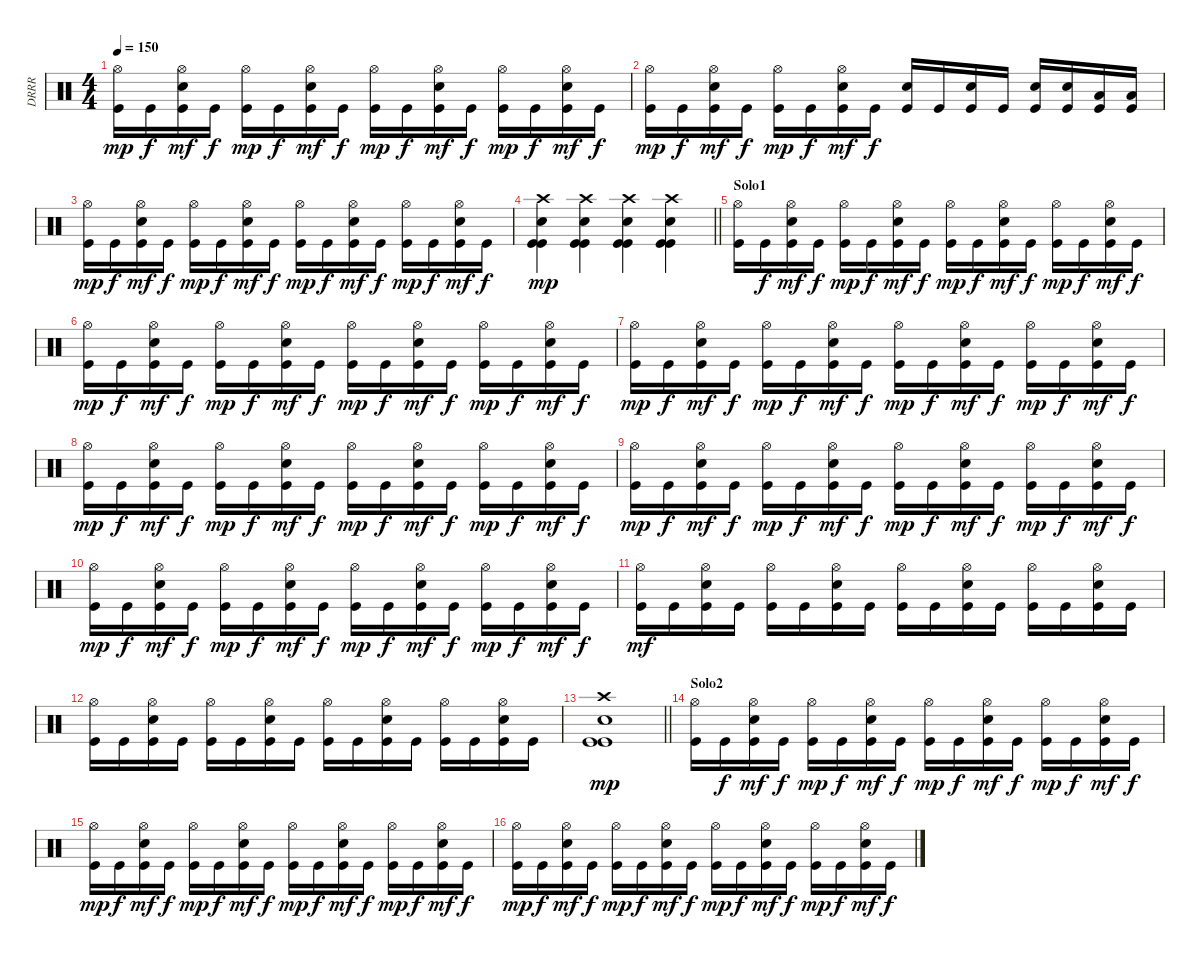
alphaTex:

\track ("DRRR" "DRRR") {instrument percussion}
\staff {score}
\articulation defaults
\ts (4 4)
\tempo 150
\clef neutral
\ks c
("Hi-Hat (open)" "Kick (hit)").16{dy mp} "Kick (hit)".16{dy f} ("Hi-Hat (open)" "Snare (hit) 2" "Kick (hit)").16{dy mf} "Kick (hit)".16{dy f} ("Hi-Hat (open)" "Kick (hit)").16{dy mp} "Kick (hit)".16{dy f} ("Hi-Hat (open)" "Snare (hit) 2" "Kick (hit)").16{dy mf} "Kick (hit)".16{dy f} ("Hi-Hat (open)" "Kick (hit)").16{dy mp} "Kick (hit)".16{dy f} ("Hi-Hat (open)" "Snare (hit) 2" "Kick (hit)").16{dy mf} "Kick (hit)".16{dy f} ("Hi-Hat (open)" "Kick (hit)").16{dy mp} "Kick (hit)".16{dy f} ("Hi-Hat (open)" "Snare (hit) 2" "Kick (hit)").16{dy mf} "Kick (hit)".16{dy f} |
("Hi-Hat (open)" "Kick (hit)").16{dy mp} "Kick (hit)".16{dy f} ("Hi-Hat (open)" "Snare (hit) 2" "Kick (hit)").16{dy mf} "Kick (hit)".16{dy f} ("Hi-Hat (open)" "Kick (hit)").16{dy mp} "Kick (hit)".16{dy f} ("Hi-Hat (open)" "Snare (hit) 2" "Kick (hit)").16{dy mf} "Kick (hit)".16{dy f} ("Snare (hit) 2" "Kick (hit)").16 "Kick (hit)".16 ("Snare (hit) 2" "Kick (hit)").16 "Kick (hit)".16 ("Snare (hit) 2" "Kick (hit)").16 ("Snare (hit) 2" "Kick (hit)").16 ("Low Tom (hit)" "Kick (hit)").16 ("Low Tom (hit)" "Kick (hit)").16 |
("Hi-Hat (open)" "Kick (hit)").16{dy mp} "Kick (hit)".16{dy f} ("Hi-Hat (open)" "Snare (hit) 2" "Kick (hit)").16{dy mf} "Kick (hit)".16{dy f} ("Hi-Hat (open)" "Kick (hit)").16{dy mp} "Kick (hit)".16{dy f} ("Hi-Hat (open)" "Snare (hit) 2" "Kick (hit)").16{dy mf} "Kick (hit)".16{dy f} ("Hi-Hat (open)" "Kick (hit)").16{dy mp} "Kick (hit)".16{dy f} ("Hi-Hat (open)" "Snare (hit) 2" "Kick (hit)").16{dy mf} "Kick (hit)".16{dy f} ("Hi-Hat (open)" "Kick (hit)").16{dy mp} "Kick (hit)".16{dy f} ("Hi-Hat (open)" "Snare (hit) 2" "Kick (hit)").16{dy mf} "Kick (hit)".16{dy f} |
\barLineRight lightlight
("Crash high (hit)" "Snare (hit) 2" "Kick (hit)" "Kick (hit)").4{dy mp} ("Crash high (hit)" "Snare (hit) 2" "Kick (hit)" "Kick (hit)").4 ("Crash high (hit)" "Snare (hit) 2" "Kick (hit)" "Kick (hit)").4 ("Crash high (hit)" "Snare (hit) 2" "Kick (hit)" "Kick (hit)").4 |
\section ("" "Solo1")
("Hi-Hat (open)" "Kick (hit)").16 "Kick (hit)".16{dy f} ("Hi-Hat (open)" "Snare (hit) 2" "Kick (hit)").16{dy mf} "Kick (hit)".16{dy f} ("Hi-Hat (open)" "Kick (hit)").16{dy mp} "Kick (hit)".16{dy f} ("Hi-Hat (open)" "Snare (hit) 2" "Kick (hit)").16{dy mf} "Kick (hit)".16{dy f} ("Hi-Hat (open)" "Kick (hit)").16{dy mp} "Kick (hit)".16{dy f} ("Hi-Hat (open)" "Snare (hit) 2" "Kick (hit)").16{dy mf} "Kick (hit)".16{dy f} ("Hi-Hat (open)" "Kick (hit)").16{dy mp} "Kick (hit)".16{dy f} ("Hi-Hat (open)" "Snare (hit) 2" "Kick (hit)").16{dy mf} "Kick (hit)".16{dy f} |
("Hi-Hat (open)" "Kick (hit)").16{dy mp} "Kick (hit)".16{dy f} ("Hi-Hat (open)" "Snare (hit) 2" "Kick (hit)").16{dy mf} "Kick (hit)".16{dy f} ("Hi-Hat (open)" "Kick (hit)").16{dy mp} "Kick (hit)".16{dy f} ("Hi-Hat (open)" "Snare (hit) 2" "Kick (hit)").16{dy mf} "Kick (hit)".16{dy f} ("Hi-Hat (open)" "Kick (hit)").16{dy mp} "Kick (hit)".16{dy f} ("Hi-Hat (open)" "Snare (hit) 2" "Kick (hit)").16{dy mf} "Kick (hit)".16{dy f} ("Hi-Hat (open)" "Kick (hit)").16{dy mp} "Kick (hit)".16{dy f} ("Hi-Hat (open)" "Snare (hit) 2" "Kick (hit)").16{dy mf} "Kick (hit)".16{dy f} |
("Hi-Hat (open)" "Kick (hit)").16{dy mp} "Kick (hit)".16{dy f} ("Hi-Hat (open)" "Snare (hit) 2" "Kick (hit)").16{dy mf} "Kick (hit)".16{dy f} ("Hi-Hat (open)" "Kick (hit)").16{dy mp} "Kick (hit)".16{dy f} ("Hi-Hat (open)" "Snare (hit) 2" "Kick (hit)").16{dy mf} "Kick (hit)".16{dy f} ("Hi-Hat (open)" "Kick (hit)").16{dy mp} "Kick (hit)".16{dy f} ("Hi-Hat (open)" "Snare (hit) 2" "Kick (hit)").16{dy mf} "Kick (hit)".16{dy f} ("Hi-Hat (open)" "Kick (hit)").16{dy mp} "Kick (hit)".16{dy f} ("Hi-Hat (open)" "Snare (hit) 2" "Kick (hit)").16{dy mf} "Kick (hit)".16{dy f} |
("Hi-Hat (open)" "Kick (hit)").16{dy mp} "Kick (hit)".16{dy f} ("Hi-Hat (open)" "Snare (hit) 2" "Kick (hit)").16{dy mf} "Kick (hit)".16{dy f} ("Hi-Hat (open)" "Kick (hit)").16{dy mp} "Kick (hit)".16{dy f} ("Hi-Hat (open)" "Snare (hit) 2" "Kick (hit)").16{dy mf} "Kick (hit)".16{dy f} ("Hi-Hat (open)" "Kick (hit)").16{dy mp} "Kick (hit)".16{dy f} ("Hi-Hat (open)" "Snare (hit) 2" "Kick (hit)").16{dy mf} "Kick (hit)".16{dy f} ("Hi-Hat (open)" "Kick (hit)").16{dy mp} "Kick (hit)".16{dy f} ("Hi-Hat (open)" "Snare (hit) 2" "Kick (hit)").16{dy mf} "Kick (hit)".16{dy f} |
("Hi-Hat (open)" "Kick (hit)").16{dy mp} "Kick (hit)".16{dy f} ("Hi-Hat (open)" "Snare (hit) 2" "Kick (hit)").16{dy mf} "Kick (hit)".16{dy f} ("Hi-Hat (open)" "Kick (hit)").16{dy mp} "Kick (hit)".16{dy f} ("Hi-Hat (open)" "Snare (hit) 2" "Kick (hit)").16{dy mf} "Kick (hit)".16{dy f} ("Hi-Hat (open)" "Kick (hit)").16{dy mp} "Kick (hit)".16{dy f} ("Hi-Hat (open)" "Snare (hit) 2" "Kick (hit)").16{dy mf} "Kick (hit)".16{dy f} ("Hi-Hat (open)" "Kick (hit)").16{dy mp} "Kick (hit)".16{dy f} ("Hi-Hat (open)" "Snare (hit) 2" "Kick (hit)").16{dy mf} "Kick (hit)".16{dy f} |
("Hi-Hat (open)" "Kick (hit)").16{dy mp} "Kick (hit)".16{dy f} ("Hi-Hat (open)" "Snare (hit) 2" "Kick (hit)").16{dy mf} "Kick (hit)".16{dy f} ("Hi-Hat (open)" "Kick (hit)").16{dy mp} "Kick (hit)".16{dy f} ("Hi-Hat (open)" "Snare (hit) 2" "Kick (hit)").16{dy mf} "Kick (hit)".16{dy f} ("Hi-Hat (open)" "Kick (hit)").16{dy mp} "Kick (hit)".16{dy f} ("Hi-Hat (open)" "Snare (hit) 2" "Kick (hit)").16{dy mf} "Kick (hit)".16{dy f} ("Hi-Hat (open)" "Kick (hit)").16{dy mp} "Kick (hit)".16{dy f} ("Hi-Hat (open)" "Snare (hit) 2" "Kick (hit)").16{dy mf} "Kick (hit)".16{dy f} |
("Hi-Hat (open)" "Kick (hit)").16{dy mf} "Kick (hit)".16 ("Hi-Hat (open)" "Snare (hit) 2" "Kick (hit)").16 "Kick (hit)".16 ("Hi-Hat (open)" "Kick (hit)").16 "Kick (hit)".16 ("Hi-Hat (open)" "Snare (hit) 2" "Kick (hit)").16 "Kick (hit)".16 ("Hi-Hat (open)" "Kick (hit)").16 "Kick (hit)".16 ("Hi-Hat (open)" "Snare (hit) 2" "Kick (hit)").16 "Kick (hit)".16 ("Hi-Hat (open)" "Kick (hit)").16 "Kick (hit)".16 ("Hi-Hat (open)" "Snare (hit) 2" "Kick (hit)").16 "Kick (hit)".16 |
("Hi-Hat (open)" "Kick (hit)").16 "Kick (hit)".16 ("Hi-Hat (open)" "Snare (hit) 2" "Kick (hit)").16 "Kick (hit)".16 ("Hi-Hat (open)" "Kick (hit)").16 "Kick (hit)".16 ("Hi-Hat (open)" "Snare (hit) 2" "Kick (hit)").16 "Kick (hit)".16 ("Hi-Hat (open)" "Kick (hit)").16 "Kick (hit)".16 ("Hi-Hat (open)" "Snare (hit) 2" "Kick (hit)").16 "Kick (hit)".16 ("Hi-Hat (open)" "Kick (hit)").16 "Kick (hit)".16 ("Hi-Hat (open)" "Snare (hit) 2" "Kick (hit)").16 "Kick (hit)".16 |
\barLineRight lightlight
("Crash high (hit)" "Snare (hit) 2" "Kick (hit)" "Kick (hit)").1{dy mp} |
\section ("" "Solo2")
("Hi-Hat (open)" "Kick (hit)").16 "Kick (hit)".16{dy f} ("Hi-Hat (open)" "Snare (hit) 2" "Kick (hit)").16{dy mf} "Kick (hit)".16{dy f} ("Hi-Hat (open)" "Kick (hit)").16{dy mp} "Kick (hit)".16{dy f} ("Hi-Hat (open)" "Snare (hit) 2" "Kick (hit)").16{dy mf} "Kick (hit)".16{dy f} ("Hi-Hat (open)" "Kick (hit)").16{dy mp} "Kick (hit)".16{dy f} ("Hi-Hat (open)" "Snare (hit) 2" "Kick (hit)").16{dy mf} "Kick (hit)".16{dy f} ("Hi-Hat (open)" "Kick (hit)").16{dy mp} "Kick (hit)".16{dy f} ("Hi-Hat (open)" "Snare (hit) 2" "Kick (hit)").16{dy mf} "Kick (hit)".16{dy f} |
("Hi-Hat (open)" "Kick (hit)").16{dy mp} "Kick (hit)".16{dy f} ("Hi-Hat (open)" "Snare (hit) 2" "Kick (hit)").16{dy mf} "Kick (hit)".16{dy f} ("Hi-Hat (open)" "Kick (hit)").16{dy mp} "Kick (hit)".16{dy f} ("Hi-Hat (open)" "Snare (hit) 2" "Kick (hit)").16{dy mf} "Kick (hit)".16{dy f} ("Hi-Hat (open)" "Kick (hit)").16{dy mp} "Kick (hit)".16{dy f} ("Hi-Hat (open)" "Snare (hit) 2" "Kick (hit)").16{dy mf} "Kick (hit)".16{dy f} ("Hi-Hat (open)" "Kick (hit)").16{dy mp} "Kick (hit)".16{dy f} ("Hi-Hat (open)" "Snare (hit) 2" "Kick (hit)").16{dy mf} "Kick (hit)".16{dy f} |
("Hi-Hat (open)" "Kick (hit)").16{dy mp} "Kick (hit)".16{dy f} ("Hi-Hat (open)" "Snare (hit) 2" "Kick (hit)").16{dy mf} "Kick (hit)".16{dy f} ("Hi-Hat (open)" "Kick (hit)").16{dy mp} "Kick (hit)".16{dy f} ("Hi-Hat (open)" "Snare (hit) 2" "Kick (hit)").16{dy mf} "Kick (hit)".16{dy f} ("Hi-Hat (open)" "Kick (hit)").16{dy mp} "Kick (hit)".16{dy f} ("Hi-Hat (open)" "Snare (hit) 2" "Kick (hit)").16{dy mf} "Kick (hit)".16{dy f} ("Hi-Hat (open)" "Kick (hit)").16{dy mp} "Kick (hit)".16{dy f} ("Hi-Hat (open)" "Snare (hit) 2" "Kick (hit)").16{dy mf} "Kick (hit)".16{dy f}
